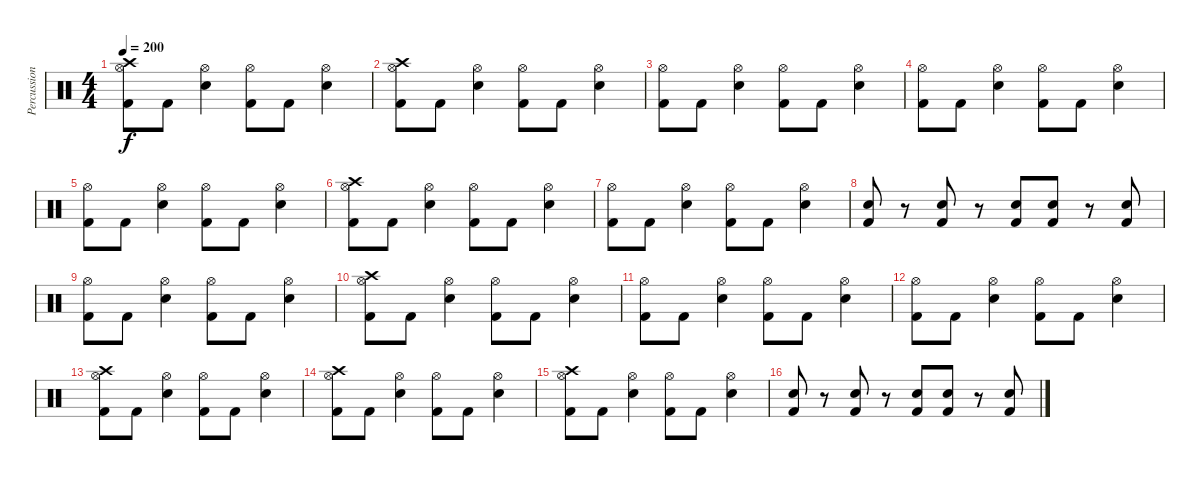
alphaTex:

\track ("Percussion" "Percussion") {instrument percussion}
\staff {score}
\articulation defaults
\ts (4 4)
\tempo 200
\clef neutral
\ks c
("Hi-Hat (open)" "Crash high (hit)" "Kick (hit) 2").8{dy f} "Kick (hit) 2".8 ("Hi-Hat (open)" "Electric Snare (hit)").4 ("Hi-Hat (open)" "Kick (hit) 2").8 "Kick (hit) 2".8 ("Hi-Hat (open)" "Electric Snare (hit)").4 |
("Hi-Hat (open)" "Crash high (hit)" "Kick (hit) 2").8 "Kick (hit) 2".8 ("Hi-Hat (open)" "Electric Snare (hit)").4 ("Hi-Hat (open)" "Kick (hit) 2").8 "Kick (hit) 2".8 ("Hi-Hat (open)" "Electric Snare (hit)").4 |
("Hi-Hat (open)" "Kick (hit) 2").8 "Kick (hit) 2".8 ("Hi-Hat (open)" "Electric Snare (hit)").4 ("Hi-Hat (open)" "Kick (hit) 2").8 "Kick (hit) 2".8 ("Hi-Hat (open)" "Electric Snare (hit)").4 |
("Hi-Hat (open)" "Kick (hit) 2").8 "Kick (hit) 2".8 ("Hi-Hat (open)" "Electric Snare (hit)").4 ("Hi-Hat (open)" "Kick (hit) 2").8 "Kick (hit) 2".8 ("Hi-Hat (open)" "Electric Snare (hit)").4 |
("Hi-Hat (open)" "Kick (hit) 2").8 "Kick (hit) 2".8 ("Hi-Hat (open)" "Electric Snare (hit)").4 ("Hi-Hat (open)" "Kick (hit) 2").8 "Kick (hit) 2".8 ("Hi-Hat (open)" "Electric Snare (hit)").4 |
("Hi-Hat (open)" "Crash high (hit)" "Kick (hit) 2").8 "Kick (hit) 2".8 ("Hi-Hat (open)" "Electric Snare (hit)").4 ("Hi-Hat (open)" "Kick (hit) 2").8 "Kick (hit) 2".8 ("Hi-Hat (open)" "Electric Snare (hit)").4 |
("Hi-Hat (open)" "Kick (hit) 2").8 "Kick (hit) 2".8 ("Hi-Hat (open)" "Electric Snare (hit)").4 ("Hi-Hat (open)" "Kick (hit) 2").8 "Kick (hit) 2".8 ("Hi-Hat (open)" "Electric Snare (hit)").4 |
("Electric Snare (hit)" "Kick (hit) 2").8 r.8 ("Electric Snare (hit)" "Kick (hit) 2").8 r.8 ("Electric Snare (hit)" "Kick (hit) 2").8 ("Electric Snare (hit)" "Kick (hit) 2").8 r.8 ("Electric Snare (hit)" "Kick (hit) 2").8 |
("Hi-Hat (open)" "Kick (hit) 2").8 "Kick (hit) 2".8 ("Hi-Hat (open)" "Electric Snare (hit)").4 ("Hi-Hat (open)" "Kick (hit) 2").8 "Kick (hit) 2".8 ("Hi-Hat (open)" "Electric Snare (hit)").4 |
("Hi-Hat (open)" "Crash high (hit)" "Kick (hit) 2").8 "Kick (hit) 2".8 ("Hi-Hat (open)" "Electric Snare (hit)").4 ("Hi-Hat (open)" "Kick (hit) 2").8 "Kick (hit) 2".8 ("Hi-Hat (open)" "Electric Snare (hit)").4 |
("Hi-Hat (open)" "Kick (hit) 2").8 "Kick (hit) 2".8 ("Hi-Hat (open)" "Electric Snare (hit)").4 ("Hi-Hat (open)" "Kick (hit) 2").8 "Kick (hit) 2".8 ("Hi-Hat (open)" "Electric Snare (hit)").4 |
("Hi-Hat (open)" "Kick (hit) 2").8 "Kick (hit) 2".8 ("Hi-Hat (open)" "Electric Snare (hit)").4 ("Hi-Hat (open)" "Kick (hit) 2").8 "Kick (hit) 2".8 ("Hi-Hat (open)" "Electric Snare (hit)").4 |
("Hi-Hat (open)" "Crash high (hit)" "Kick (hit) 2").8 "Kick (hit) 2".8 ("Hi-Hat (open)" "Electric Snare (hit)").4 ("Hi-Hat (open)" "Kick (hit) 2").8 "Kick (hit) 2".8 ("Hi-Hat (open)" "Electric Snare (hit)").4 |
("Hi-Hat (open)" "Crash high (hit)" "Kick (hit) 2").8 "Kick (hit) 2".8 ("Hi-Hat (open)" "Electric Snare (hit)").4 ("Hi-Hat (open)" "Kick (hit) 2").8 "Kick (hit) 2".8 ("Hi-Hat (open)" "Electric Snare (hit)").4 |
("Hi-Hat (open)" "Crash high (hit)" "Kick (hit) 2").8 "Kick (hit) 2".8 ("Hi-Hat (open)" "Electric Snare (hit)").4 ("Hi-Hat (open)" "Kick (hit) 2").8 "Kick (hit) 2".8 ("Hi-Hat (open)" "Electric Snare (hit)").4 |
("Electric Snare (hit)" "Kick (hit) 2").8 r.8 ("Electric Snare (hit)" "Kick (hit) 2").8 r.8 ("Electric Snare (hit)" "Kick (hit) 2").8 ("Electric Snare (hit)" "Kick (hit) 2").8 r.8 ("Electric Snare (hit)" "Kick (hit) 2").8
